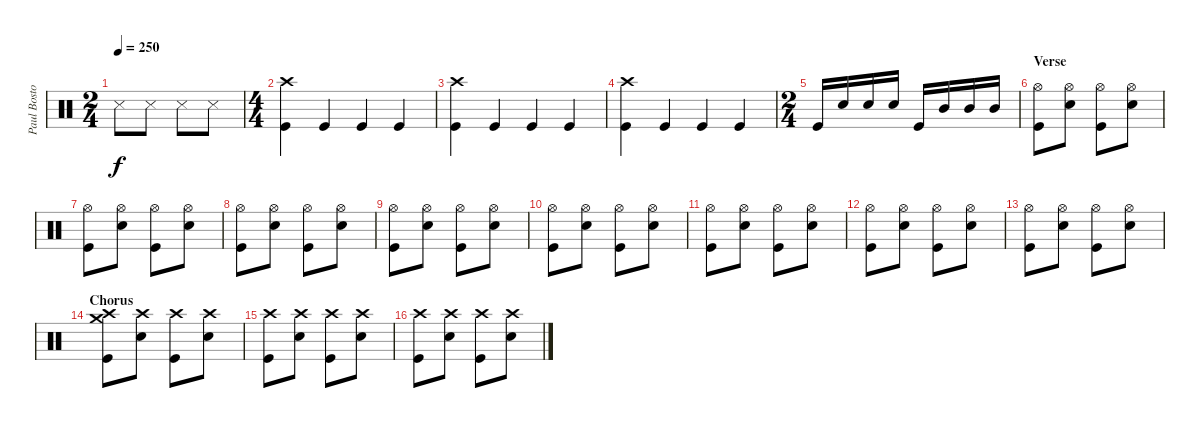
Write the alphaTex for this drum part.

\track ("Paul Bostoph" "Paul Bosto") {instrument percussion}
\staff {score}
\articulation defaults
\ts (2 4)
\tempo 250
\clef neutral
\ks c "Snare (side stick) 3".8{dy f} "Snare (side stick) 3".8 "Snare (side stick) 3".8 "Snare (side stick) 3".8
|
\ts (4 4)
("Crash high (hit)" "Kick (hit)").4 "Kick (hit)".4 "Kick (hit)".4 "Kick (hit)".4 |
("Crash high (hit)" "Kick (hit)").4 "Kick (hit)".4 "Kick (hit)".4 "Kick (hit)".4 |
("Crash high (hit)" "Kick (hit)").4 "Kick (hit)".4 "Kick (hit)".4 "Kick (hit)".4 |
\ts (2 4)
"Kick (hit)".16 "Snare (hit) 2".16 "Snare (hit) 2".16 "Snare (hit) 2".16 "Kick (hit)".16 "Mid Tom (hit)".16 "Mid Tom (hit)".16 "Mid Tom (hit)".16 |
\section ("" "Verse")
("Hi-Hat (open)" "Kick (hit)").8 ("Hi-Hat (open)" "Snare (hit) 2").8 ("Hi-Hat (open)" "Kick (hit)").8 ("Hi-Hat (open)" "Snare (hit) 2").8 |
("Hi-Hat (open)" "Kick (hit)").8 ("Hi-Hat (open)" "Snare (hit) 2").8 ("Hi-Hat (open)" "Kick (hit)").8 ("Hi-Hat (open)" "Snare (hit) 2").8 |
("Hi-Hat (open)" "Kick (hit)").8 ("Hi-Hat (open)" "Snare (hit) 2").8 ("Hi-Hat (open)" "Kick (hit)").8 ("Hi-Hat (open)" "Snare (hit) 2").8 |
("Hi-Hat (open)" "Kick (hit)").8 ("Hi-Hat (open)" "Snare (hit) 2").8 ("Hi-Hat (open)" "Kick (hit)").8 ("Hi-Hat (open)" "Snare (hit) 2").8 |
("Hi-Hat (open)" "Kick (hit)").8 ("Hi-Hat (open)" "Snare (hit) 2").8 ("Hi-Hat (open)" "Kick (hit)").8 ("Hi-Hat (open)" "Snare (hit) 2").8 |
("Hi-Hat (open)" "Kick (hit)").8 ("Hi-Hat (open)" "Snare (hit) 2").8 ("Hi-Hat (open)" "Kick (hit)").8 ("Hi-Hat (open)" "Snare (hit) 2").8 |
("Hi-Hat (open)" "Kick (hit)").8 ("Hi-Hat (open)" "Snare (hit) 2").8 ("Hi-Hat (open)" "Kick (hit)").8 ("Hi-Hat (open)" "Snare (hit) 2").8 |
("Hi-Hat (open)" "Kick (hit)").8 ("Hi-Hat (open)" "Snare (hit) 2").8 ("Hi-Hat (open)" "Kick (hit)").8 ("Hi-Hat (open)" "Snare (hit) 2").8 |
\section ("" "Chorus")
("Crash medium (hit)" "Crash high (hit)" "Kick (hit)").8 ("Crash high (hit)" "Snare (hit) 2").8 ("Crash high (hit)" "Kick (hit)").8 ("Crash high (hit)" "Snare (hit) 2").8 |
("Crash high (hit)" "Kick (hit)").8 ("Crash high (hit)" "Snare (hit) 2").8 ("Crash high (hit)" "Kick (hit)").8 ("Crash high (hit)" "Snare (hit) 2").8 |
("Crash high (hit)" "Kick (hit)").8 ("Crash high (hit)" "Snare (hit) 2").8 ("Crash high (hit)" "Kick (hit)").8 ("Crash high (hit)" "Snare (hit) 2").8
